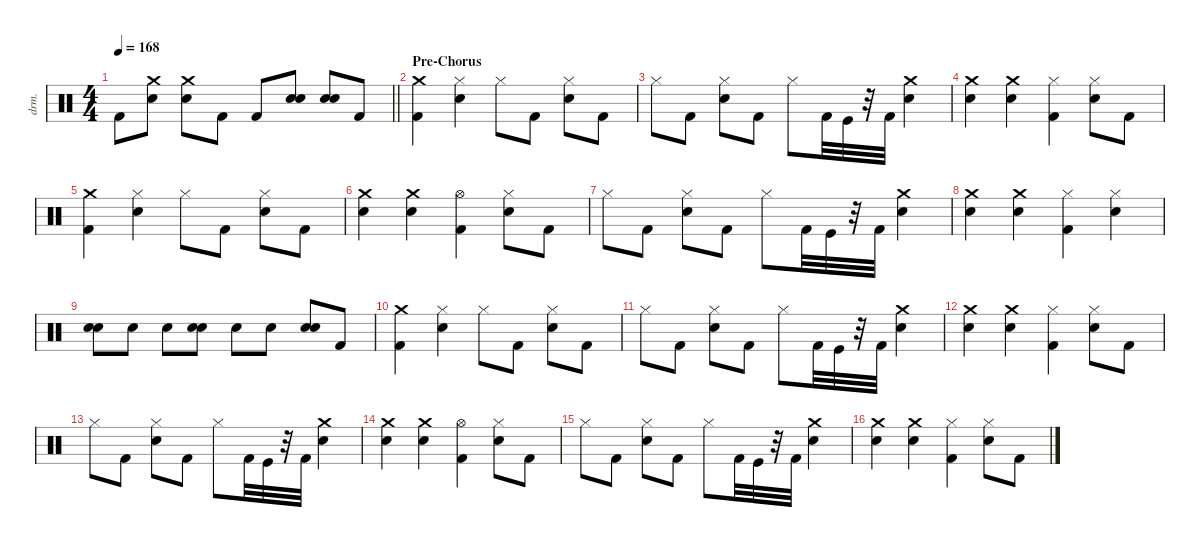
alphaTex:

\defaultSystemsLayout 4
\hideDynamics
\bracketExtendMode nobrackets
\otherSystemsTrackNameOrientation horizontal
\track ("Drums" "drm.") {instrument percussion}
\staff {score}
\articulation defaults
\ts (4 4)
\tempo 168
\clef neutral
\barLineRight lightlight
\ks c "Kick (hit) 2".8{dy fff}
("Snare (hit) 2" "Crash medium (hit)").8 ("Snare (hit) 2" "Crash medium (hit)").8 "Kick (hit) 2".8 "Kick (hit) 2".8 ("Snare (hit) 2" "Snare (hit) 2").8{dy f} ("Snare (hit) 2" "Snare (hit) 2").8 "Kick (hit) 2".8{dy fff} |
\section ("" "Pre-Chorus")
("Kick (hit) 2" "Crash medium (hit)").4 ("Hi-Hat (closed)" "Snare (hit) 2").4 "Hi-Hat (closed)".8 "Kick (hit) 2".8 ("Snare (hit) 2" "Hi-Hat (closed)").8 "Kick (hit) 2".8 |
"Hi-Hat (closed)".8 "Kick (hit) 2".8 ("Snare (hit) 2" "Hi-Hat (closed)").8 "Kick (hit) 2".8 "Hi-Hat (closed)".8 "Kick (hit) 2".32 "Kick (hit)".32 r.32 "Kick (hit) 2".32 ("Crash medium (hit)" "Snare (hit) 2").4 |
("Crash medium (hit)" "Snare (hit) 2").4 ("Crash medium (hit)" "Snare (hit) 2").4 ("Hi-Hat (closed)" "Kick (hit) 2").4 ("Snare (hit) 2" "Hi-Hat (closed)").8 "Kick (hit) 2".8 |
("Kick (hit) 2" "Crash medium (hit)").4 ("Hi-Hat (closed)" "Snare (hit) 2").4 "Hi-Hat (closed)".8 "Kick (hit) 2".8 ("Snare (hit) 2" "Hi-Hat (closed)").8 "Kick (hit) 2".8 |
("Crash medium (hit)" "Snare (hit) 2").4 ("Crash medium (hit)" "Snare (hit) 2").4 ("Hi-Hat (open)" "Kick (hit) 2").4 ("Snare (hit) 2" "Hi-Hat (closed)").8 "Kick (hit) 2".8 |
"Hi-Hat (closed)".8 "Kick (hit) 2".8 ("Snare (hit) 2" "Hi-Hat (closed)").8 "Kick (hit) 2".8 "Hi-Hat (closed)".8 "Kick (hit) 2".32 "Kick (hit)".32 r.32 "Kick (hit) 2".32 ("Crash medium (hit)" "Snare (hit) 2").4 |
("Snare (hit) 2" "Crash medium (hit)").4 ("Snare (hit) 2" "Crash medium (hit)").4 ("Kick (hit) 2" "Hi-Hat (closed)").4 ("Hi-Hat (closed)" "Snare (hit) 2").4 |
("Snare (hit) 2" "Snare (hit) 2").8{dy f} "Snare (hit) 2".8{dy fff} "Snare (hit) 2".8 ("Snare (hit) 2" "Snare (hit) 2").8{dy f} "Snare (hit) 2".8{dy fff} "Snare (hit) 2".8 ("Snare (hit) 2" "Snare (hit) 2").8{dy f} "Kick (hit) 2".8{dy fff} |
("Kick (hit) 2" "Crash medium (hit)").4 ("Hi-Hat (closed)" "Snare (hit) 2").4 "Hi-Hat (closed)".8 "Kick (hit) 2".8 ("Snare (hit) 2" "Hi-Hat (closed)").8 "Kick (hit) 2".8 |
"Hi-Hat (closed)".8 "Kick (hit) 2".8 ("Snare (hit) 2" "Hi-Hat (closed)").8 "Kick (hit) 2".8 "Hi-Hat (closed)".8 "Kick (hit) 2".32 "Kick (hit)".32 r.32 "Kick (hit) 2".32 ("Crash medium (hit)" "Snare (hit) 2").4 |
("Crash medium (hit)" "Snare (hit) 2").4 ("Crash medium (hit)" "Snare (hit) 2").4 ("Hi-Hat (closed)" "Kick (hit) 2").4 ("Snare (hit) 2" "Hi-Hat (closed)").8 "Kick (hit) 2".8 |
"Hi-Hat (closed)".8 "Kick (hit) 2".8 ("Snare (hit) 2" "Hi-Hat (closed)").8 "Kick (hit) 2".8 "Hi-Hat (closed)".8 "Kick (hit) 2".32 "Kick (hit)".32 r.32 "Kick (hit) 2".32 ("Crash medium (hit)" "Snare (hit) 2").4 |
("Crash medium (hit)" "Snare (hit) 2").4 ("Crash medium (hit)" "Snare (hit) 2").4 ("Hi-Hat (open)" "Kick (hit) 2").4 ("Snare (hit) 2" "Hi-Hat (closed)").8 "Kick (hit) 2".8 |
"Hi-Hat (closed)".8 "Kick (hit) 2".8 ("Snare (hit) 2" "Hi-Hat (closed)").8 "Kick (hit) 2".8 "Hi-Hat (closed)".8 "Kick (hit) 2".32 "Kick (hit)".32 r.32 "Kick (hit) 2".32 ("Crash medium (hit)" "Snare (hit) 2").4 |
("Crash medium (hit)" "Snare (hit) 2").4 ("Crash medium (hit)" "Snare (hit) 2").4 ("Hi-Hat (closed)" "Kick (hit) 2").4 ("Snare (hit) 2" "Hi-Hat (closed)").8 "Kick (hit) 2".8
